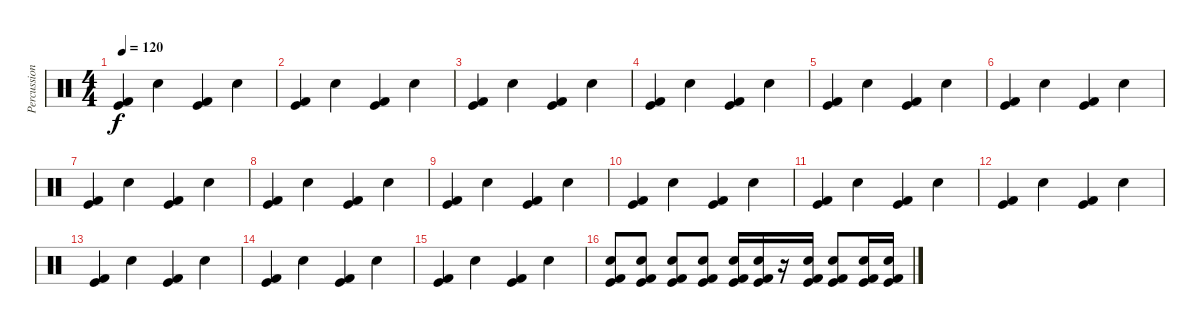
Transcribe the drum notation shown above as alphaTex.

\track ("Percussion" "Percussion") {instrument percussion}
\staff {score}
\articulation defaults
\ts (4 4)
\tempo 120
\clef neutral
\ks c
("Kick (hit)" "Kick (hit) 2").4{dy f} "Snare (hit) 2".4 ("Kick (hit) 2" "Kick (hit)").4 "Snare (hit) 2".4 |
("Kick (hit)" "Kick (hit) 2").4 "Snare (hit) 2".4 ("Kick (hit) 2" "Kick (hit)").4 "Snare (hit) 2".4 |
("Kick (hit)" "Kick (hit) 2").4 "Snare (hit) 2".4 ("Kick (hit) 2" "Kick (hit)").4 "Snare (hit) 2".4 |
("Kick (hit)" "Kick (hit) 2").4 "Snare (hit) 2".4 ("Kick (hit) 2" "Kick (hit)").4 "Snare (hit) 2".4 |
("Kick (hit)" "Kick (hit) 2").4 "Snare (hit) 2".4 ("Kick (hit) 2" "Kick (hit)").4 "Snare (hit) 2".4 |
("Kick (hit)" "Kick (hit) 2").4 "Snare (hit) 2".4 ("Kick (hit) 2" "Kick (hit)").4 "Snare (hit) 2".4 |
("Kick (hit)" "Kick (hit) 2").4 "Snare (hit) 2".4 ("Kick (hit) 2" "Kick (hit)").4 "Snare (hit) 2".4 |
("Kick (hit)" "Kick (hit) 2").4 "Snare (hit) 2".4 ("Kick (hit) 2" "Kick (hit)").4 "Snare (hit) 2".4 |
("Kick (hit)" "Kick (hit) 2").4 "Snare (hit) 2".4 ("Kick (hit) 2" "Kick (hit)").4 "Snare (hit) 2".4 |
("Kick (hit)" "Kick (hit) 2").4 "Snare (hit) 2".4 ("Kick (hit) 2" "Kick (hit)").4 "Snare (hit) 2".4 |
("Kick (hit)" "Kick (hit) 2").4 "Snare (hit) 2".4 ("Kick (hit) 2" "Kick (hit)").4 "Snare (hit) 2".4 |
("Kick (hit)" "Kick (hit) 2").4 "Snare (hit) 2".4 ("Kick (hit) 2" "Kick (hit)").4 "Snare (hit) 2".4 |
("Kick (hit)" "Kick (hit) 2").4 "Snare (hit) 2".4 ("Kick (hit) 2" "Kick (hit)").4 "Snare (hit) 2".4 |
("Kick (hit)" "Kick (hit) 2").4 "Snare (hit) 2".4 ("Kick (hit) 2" "Kick (hit)").4 "Snare (hit) 2".4 |
("Kick (hit)" "Kick (hit) 2").4 "Snare (hit) 2".4 ("Kick (hit) 2" "Kick (hit)").4 "Snare (hit) 2".4 |
("Snare (hit) 2" "Kick (hit) 2" "Kick (hit)").8 ("Snare (hit) 2" "Kick (hit) 2" "Kick (hit)").8 ("Snare (hit) 2" "Kick (hit) 2" "Kick (hit)").8 ("Snare (hit) 2" "Kick (hit) 2" "Kick (hit)").8 ("Snare (hit) 2" "Kick (hit) 2" "Kick (hit)").16 ("Snare (hit) 2" "Kick (hit) 2" "Kick (hit)").16 r.16 ("Snare (hit) 2" "Kick (hit) 2" "Kick (hit)").16 ("Snare (hit) 2" "Kick (hit) 2" "Kick (hit)").8 ("Snare (hit) 2" "Kick (hit) 2" "Kick (hit)").16 ("Snare (hit) 2" "Kick (hit) 2" "Kick (hit)").16
